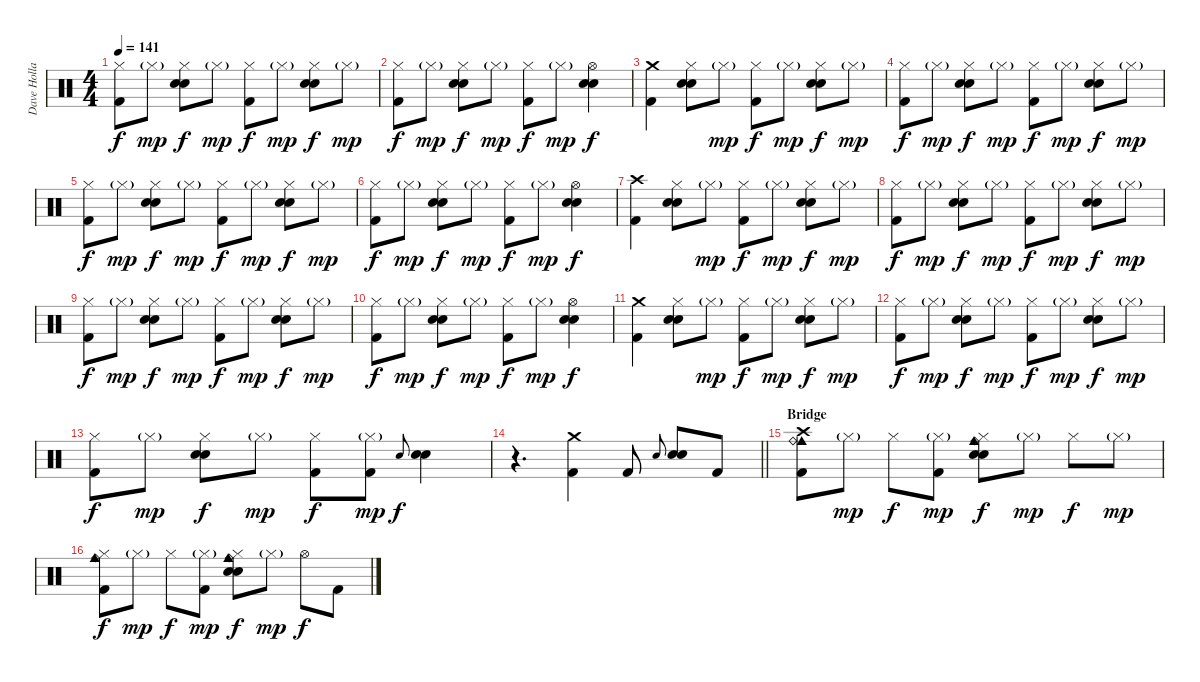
\track ("Dave Holland" "Dave Holla") {instrument percussion}
\staff {score}
\articulation defaults
\ts (4 4)
\tempo 141
\clef neutral
\ks c
("Hi-Hat (closed)" "Kick (hit) 2").8{dy f} "Hi-Hat (closed)"{g}.8{dy mp} ("Hi-Hat (closed)" "Electric Snare (hit)" "Snare (hit) 2").8{dy f} "Hi-Hat (closed)"{g}.8{dy mp} ("Hi-Hat (closed)" "Kick (hit) 2").8{dy f} "Hi-Hat (closed)"{g}.8{dy mp} ("Hi-Hat (closed)" "Electric Snare (hit)" "Snare (hit) 2").8{dy f} "Hi-Hat (closed)"{g}.8{dy mp} |
("Hi-Hat (closed)" "Kick (hit) 2").8{dy f} "Hi-Hat (closed)"{g}.8{dy mp} ("Hi-Hat (closed)" "Electric Snare (hit)" "Snare (hit) 2").8{dy f} "Hi-Hat (closed)"{g}.8{dy mp} ("Hi-Hat (closed)" "Kick (hit) 2").8{dy f} "Hi-Hat (closed)"{g}.8{dy mp} ("Hi-Hat (open)" "Electric Snare (hit)" "Snare (hit) 2").4{dy f} |
("Crash medium (hit)" "Kick (hit) 2").4 ("Hi-Hat (closed)" "Electric Snare (hit)" "Snare (hit) 2").8 "Hi-Hat (closed)"{g}.8{dy mp} ("Hi-Hat (closed)" "Kick (hit) 2").8{dy f} "Hi-Hat (closed)"{g}.8{dy mp} ("Hi-Hat (closed)" "Electric Snare (hit)" "Snare (hit) 2").8{dy f} "Hi-Hat (closed)"{g}.8{dy mp} |
("Hi-Hat (closed)" "Kick (hit) 2").8{dy f} "Hi-Hat (closed)"{g}.8{dy mp} ("Hi-Hat (closed)" "Electric Snare (hit)" "Snare (hit) 2").8{dy f} "Hi-Hat (closed)"{g}.8{dy mp} ("Hi-Hat (closed)" "Kick (hit) 2").8{dy f} "Hi-Hat (closed)"{g}.8{dy mp} ("Hi-Hat (closed)" "Electric Snare (hit)" "Snare (hit) 2").8{dy f} "Hi-Hat (closed)"{g}.8{dy mp} |
("Hi-Hat (closed)" "Kick (hit) 2").8{dy f} "Hi-Hat (closed)"{g}.8{dy mp} ("Hi-Hat (closed)" "Electric Snare (hit)" "Snare (hit) 2").8{dy f} "Hi-Hat (closed)"{g}.8{dy mp} ("Hi-Hat (closed)" "Kick (hit) 2").8{dy f} "Hi-Hat (closed)"{g}.8{dy mp} ("Hi-Hat (closed)" "Electric Snare (hit)" "Snare (hit) 2").8{dy f} "Hi-Hat (closed)"{g}.8{dy mp} |
("Hi-Hat (closed)" "Kick (hit) 2").8{dy f} "Hi-Hat (closed)"{g}.8{dy mp} ("Hi-Hat (closed)" "Electric Snare (hit)" "Snare (hit) 2").8{dy f} "Hi-Hat (closed)"{g}.8{dy mp} ("Hi-Hat (closed)" "Kick (hit) 2").8{dy f} "Hi-Hat (closed)"{g}.8{dy mp} ("Hi-Hat (open)" "Electric Snare (hit)" "Snare (hit) 2").4{dy f} |
("Crash high (hit)" "Kick (hit) 2").4 ("Hi-Hat (closed)" "Electric Snare (hit)" "Snare (hit) 2").8 "Hi-Hat (closed)"{g}.8{dy mp} ("Hi-Hat (closed)" "Kick (hit) 2").8{dy f} "Hi-Hat (closed)"{g}.8{dy mp} ("Hi-Hat (closed)" "Electric Snare (hit)" "Snare (hit) 2").8{dy f} "Hi-Hat (closed)"{g}.8{dy mp} |
("Hi-Hat (closed)" "Kick (hit) 2").8{dy f} "Hi-Hat (closed)"{g}.8{dy mp} ("Hi-Hat (closed)" "Electric Snare (hit)" "Snare (hit) 2").8{dy f} "Hi-Hat (closed)"{g}.8{dy mp} ("Hi-Hat (closed)" "Kick (hit) 2").8{dy f} "Hi-Hat (closed)"{g}.8{dy mp} ("Hi-Hat (closed)" "Electric Snare (hit)" "Snare (hit) 2").8{dy f} "Hi-Hat (closed)"{g}.8{dy mp} |
("Hi-Hat (closed)" "Kick (hit) 2").8{dy f} "Hi-Hat (closed)"{g}.8{dy mp} ("Hi-Hat (closed)" "Electric Snare (hit)" "Snare (hit) 2").8{dy f} "Hi-Hat (closed)"{g}.8{dy mp} ("Hi-Hat (closed)" "Kick (hit) 2").8{dy f} "Hi-Hat (closed)"{g}.8{dy mp} ("Hi-Hat (closed)" "Electric Snare (hit)" "Snare (hit) 2").8{dy f} "Hi-Hat (closed)"{g}.8{dy mp} |
("Hi-Hat (closed)" "Kick (hit) 2").8{dy f} "Hi-Hat (closed)"{g}.8{dy mp} ("Hi-Hat (closed)" "Electric Snare (hit)" "Snare (hit) 2").8{dy f} "Hi-Hat (closed)"{g}.8{dy mp} ("Hi-Hat (closed)" "Kick (hit) 2").8{dy f} "Hi-Hat (closed)"{g}.8{dy mp} ("Hi-Hat (open)" "Electric Snare (hit)" "Snare (hit) 2").4{dy f} |
("Crash medium (hit)" "Kick (hit) 2").4 ("Hi-Hat (closed)" "Electric Snare (hit)" "Snare (hit) 2").8 "Hi-Hat (closed)"{g}.8{dy mp} ("Hi-Hat (closed)" "Kick (hit) 2").8{dy f} "Hi-Hat (closed)"{g}.8{dy mp} ("Hi-Hat (closed)" "Electric Snare (hit)" "Snare (hit) 2").8{dy f} "Hi-Hat (closed)"{g}.8{dy mp} |
("Hi-Hat (closed)" "Kick (hit) 2").8{dy f} "Hi-Hat (closed)"{g}.8{dy mp} ("Hi-Hat (closed)" "Electric Snare (hit)" "Snare (hit) 2").8{dy f} "Hi-Hat (closed)"{g}.8{dy mp} ("Hi-Hat (closed)" "Kick (hit) 2").8{dy f} "Hi-Hat (closed)"{g}.8{dy mp} ("Hi-Hat (closed)" "Electric Snare (hit)" "Snare (hit) 2").8{dy f} "Hi-Hat (closed)"{g}.8{dy mp} |
("Hi-Hat (closed)" "Kick (hit) 2").8{dy f} "Hi-Hat (closed)"{g}.8{dy mp} ("Hi-Hat (closed)" "Electric Snare (hit)" "Snare (hit) 2").8{dy f} "Hi-Hat (closed)"{g}.8{dy mp} ("Hi-Hat (closed)" "Kick (hit) 2").8{dy f} ("Hi-Hat (closed)"{g} "Kick (hit) 2").8{dy mp} "Electric Snare (hit)".8{gr onbeat dy f} ("Electric Snare (hit)" "Snare (hit) 2").4 |
\barLineRight lightlight
r.4{d} ("Crash medium (hit)" "Kick (hit) 2").4 "Kick (hit) 2".8 "Electric Snare (hit)".8{gr onbeat} ("Electric Snare (hit)" "Snare (hit) 2").8 "Kick (hit) 2".8 |
\section ("" "Bridge")
("Crash high (hit)" "Cowbell medium (hit)" "Ride (bell)" "Kick (hit) 2").8 "Hi-Hat (closed)"{g}.8{dy mp} "Hi-Hat (closed)".8{dy f} ("Hi-Hat (closed)"{g} "Kick (hit) 2").8{dy mp} ("Hi-Hat (closed)" "Cowbell medium (hit)" "Ride (bell)" "Electric Snare (hit)" "Snare (hit) 2").8{dy f} "Hi-Hat (closed)"{g}.8{dy mp} "Hi-Hat (closed)".8{dy f} "Hi-Hat (closed)"{g}.8{dy mp} |
("Hi-Hat (closed)" "Cowbell medium (hit)" "Ride (bell)" "Kick (hit) 2").8{dy f} "Hi-Hat (closed)"{g}.8{dy mp} "Hi-Hat (closed)".8{dy f} ("Hi-Hat (closed)"{g} "Kick (hit) 2").8{dy mp} ("Hi-Hat (closed)" "Cowbell medium (hit)" "Ride (bell)" "Electric Snare (hit)" "Snare (hit) 2").8{dy f} "Hi-Hat (closed)"{g}.8{dy mp} "Hi-Hat (open)".8{dy f} "Kick (hit) 2".8
